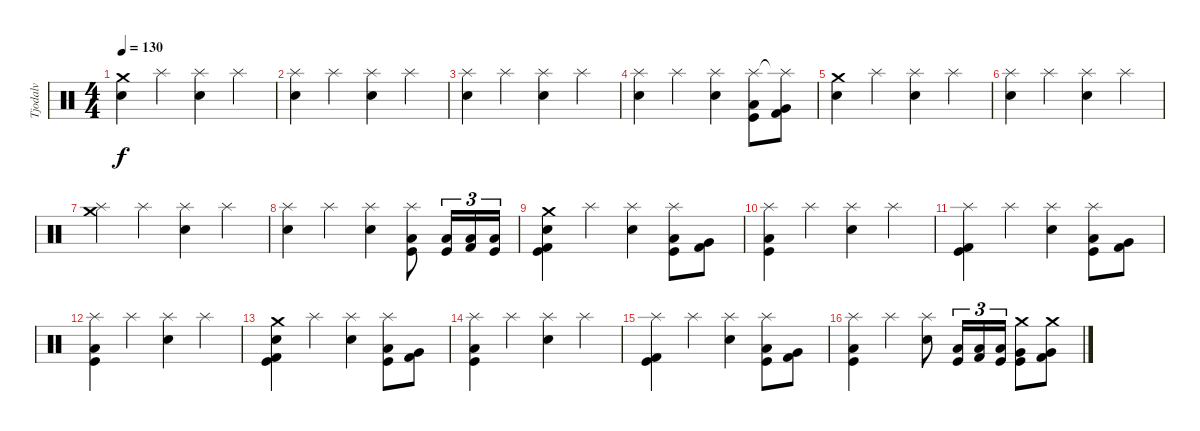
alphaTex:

\track ("Tjodalv" "Tjodalv") {instrument percussion}
\staff {score}
\articulation defaults
\ts (4 4)
\tempo 130
\clef neutral
\ks c
("Crash medium (hit)" "Snare (hit) 2").4{dy f} "Splash (hit)".4 ("Splash (hit)" "Snare (hit) 2").4 "Splash (hit)".4 |
("Splash (hit)" "Snare (hit) 2").4 "Splash (hit)".4 ("Splash (hit)" "Snare (hit) 2").4 "Splash (hit)".4 |
("Splash (hit)" "Snare (hit) 2").4 "Splash (hit)".4 ("Splash (hit)" "Snare (hit) 2").4 "Splash (hit)".4 |
("Splash (hit)" "Snare (hit) 2").4 "Splash (hit)".4 ("Splash (hit)" "Snare (hit) 2").4 ("Splash (hit)" "Kick (hit)" "Low Floor Tom (hit)").8 ("Splash (hit)"{t} "Kick (hit) 2" "Very Low Tom (hit)").8 |
("Crash medium (hit)" "Snare (hit) 2").4 "Splash (hit)".4 ("Splash (hit)" "Snare (hit) 2").4 "Splash (hit)".4 |
("Splash (hit)" "Snare (hit) 2").4 "Splash (hit)".4 ("Splash (hit)" "Snare (hit) 2").4 "Splash (hit)".4 |
("Splash (hit)" "Crash medium (hit)").4 "Splash (hit)".4 ("Splash (hit)" "Snare (hit) 2").4 "Splash (hit)".4 |
("Splash (hit)" "Snare (hit) 2").4 "Splash (hit)".4 ("Splash (hit)" "Snare (hit) 2").4 ("Splash (hit)" "Kick (hit)" "Low Floor Tom (hit)").8 ("Low Floor Tom (hit)" "Kick (hit)").16{tu (3 2)} ("Low Floor Tom (hit)" "Kick (hit) 2").16{tu (3 2)} ("Low Floor Tom (hit)" "Kick (hit)").16{tu (3 2)} |
("Crash medium (hit)" "Snare (hit) 2" "Kick (hit)" "Kick (hit) 2").4 "Splash (hit)".4 ("Splash (hit)" "Snare (hit) 2").4 ("Splash (hit)" "Kick (hit)" "Low Floor Tom (hit)").8 ("Kick (hit) 2" "Very Low Tom (hit)").8 |
("Splash (hit)" "Low Tom (hit)" "Kick (hit)").4 "Splash (hit)".4 ("Splash (hit)" "Snare (hit) 2").4 "Splash (hit)".4 |
("Splash (hit)" "Kick (hit)" "Kick (hit) 2").4 "Splash (hit)".4 ("Splash (hit)" "Snare (hit) 2").4 ("Splash (hit)" "Kick (hit)" "Low Floor Tom (hit)").8 ("Kick (hit) 2" "Very Low Tom (hit)").8 |
("Splash (hit)" "Kick (hit)" "Low Tom (hit)").4 "Splash (hit)".4 ("Splash (hit)" "Snare (hit) 2").4 "Splash (hit)".4 |
("Crash medium (hit)" "Snare (hit) 2" "Kick (hit)" "Kick (hit) 2").4 "Splash (hit)".4 ("Splash (hit)" "Snare (hit) 2").4 ("Splash (hit)" "Kick (hit)" "Low Floor Tom (hit)").8 ("Kick (hit) 2" "Very Low Tom (hit)").8 |
("Splash (hit)" "Low Tom (hit)" "Kick (hit)").4 "Splash (hit)".4 ("Splash (hit)" "Snare (hit) 2").4 "Splash (hit)".4 |
("Splash (hit)" "Kick (hit)" "Kick (hit) 2").4 "Splash (hit)".4 ("Splash (hit)" "Snare (hit) 2").4 ("Splash (hit)" "Kick (hit)" "Low Floor Tom (hit)").8 ("Kick (hit) 2" "Very Low Tom (hit)").8 |
("Splash (hit)" "Kick (hit)" "Low Tom (hit)").4 "Splash (hit)".4 ("Splash (hit)" "Snare (hit) 2").8 ("Low Floor Tom (hit)" "Kick (hit)").16{tu (3 2)} ("Low Floor Tom (hit)" "Kick (hit) 2").16{tu (3 2)} ("Low Floor Tom (hit)" "Kick (hit)").16{tu (3 2)} ("Crash medium (hit)" "Very Low Tom (hit)" "Kick (hit)").8 ("Crash medium (hit)" "Very Low Tom (hit)" "Kick (hit) 2").8
